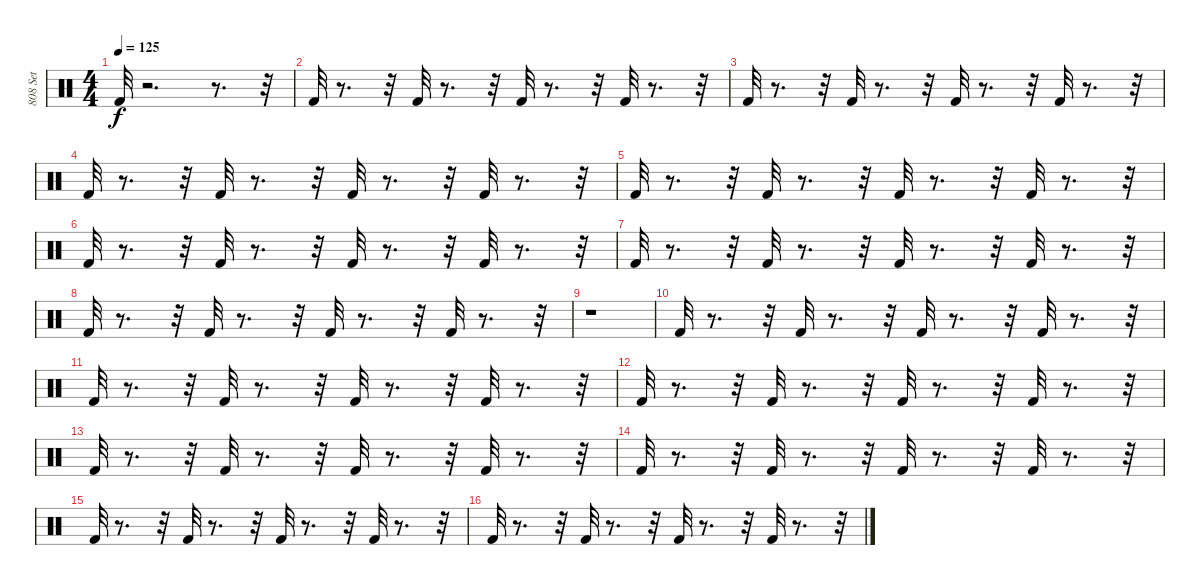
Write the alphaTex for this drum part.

\track ("808 Set" "808 Set") {instrument percussion}
\staff {score}
\articulation defaults
\ts (4 4)
\tempo 125
\clef neutral
\ks c "Kick (hit) 2".32{dy f}
r.2{d} r.8{d} r.32 |
"Kick (hit) 2".32 r.8{d} r.32 "Kick (hit) 2".32 r.8{d} r.32 "Kick (hit) 2".32 r.8{d} r.32 "Kick (hit) 2".32 r.8{d} r.32 |
"Kick (hit) 2".32 r.8{d} r.32 "Kick (hit) 2".32 r.8{d} r.32 "Kick (hit) 2".32 r.8{d} r.32 "Kick (hit) 2".32 r.8{d} r.32 |
"Kick (hit) 2".32 r.8{d} r.32 "Kick (hit) 2".32 r.8{d} r.32 "Kick (hit) 2".32 r.8{d} r.32 "Kick (hit) 2".32 r.8{d} r.32 |
"Kick (hit) 2".32 r.8{d} r.32 "Kick (hit) 2".32 r.8{d} r.32 "Kick (hit) 2".32 r.8{d} r.32 "Kick (hit) 2".32 r.8{d} r.32 |
"Kick (hit) 2".32 r.8{d} r.32 "Kick (hit) 2".32 r.8{d} r.32 "Kick (hit) 2".32 r.8{d} r.32 "Kick (hit) 2".32 r.8{d} r.32 |
"Kick (hit) 2".32 r.8{d} r.32 "Kick (hit) 2".32 r.8{d} r.32 "Kick (hit) 2".32 r.8{d} r.32 "Kick (hit) 2".32 r.8{d} r.32 |
"Kick (hit) 2".32 r.8{d} r.32 "Kick (hit) 2".32 r.8{d} r.32 "Kick (hit) 2".32 r.8{d} r.32 "Kick (hit) 2".32 r.8{d} r.32 |
r.1 |
"Kick (hit) 2".32 r.8{d} r.32 "Kick (hit) 2".32 r.8{d} r.32 "Kick (hit) 2".32 r.8{d} r.32 "Kick (hit) 2".32 r.8{d} r.32 |
"Kick (hit) 2".32 r.8{d} r.32 "Kick (hit) 2".32 r.8{d} r.32 "Kick (hit) 2".32 r.8{d} r.32 "Kick (hit) 2".32 r.8{d} r.32 |
"Kick (hit) 2".32 r.8{d} r.32 "Kick (hit) 2".32 r.8{d} r.32 "Kick (hit) 2".32 r.8{d} r.32 "Kick (hit) 2".32 r.8{d} r.32 |
"Kick (hit) 2".32 r.8{d} r.32 "Kick (hit) 2".32 r.8{d} r.32 "Kick (hit) 2".32 r.8{d} r.32 "Kick (hit) 2".32 r.8{d} r.32 |
"Kick (hit) 2".32 r.8{d} r.32 "Kick (hit) 2".32 r.8{d} r.32 "Kick (hit) 2".32 r.8{d} r.32 "Kick (hit) 2".32 r.8{d} r.32 |
"Kick (hit) 2".32 r.8{d} r.32 "Kick (hit) 2".32 r.8{d} r.32 "Kick (hit) 2".32 r.8{d} r.32 "Kick (hit) 2".32 r.8{d} r.32 |
"Kick (hit) 2".32 r.8{d} r.32 "Kick (hit) 2".32 r.8{d} r.32 "Kick (hit) 2".32 r.8{d} r.32 "Kick (hit) 2".32 r.8{d} r.32
